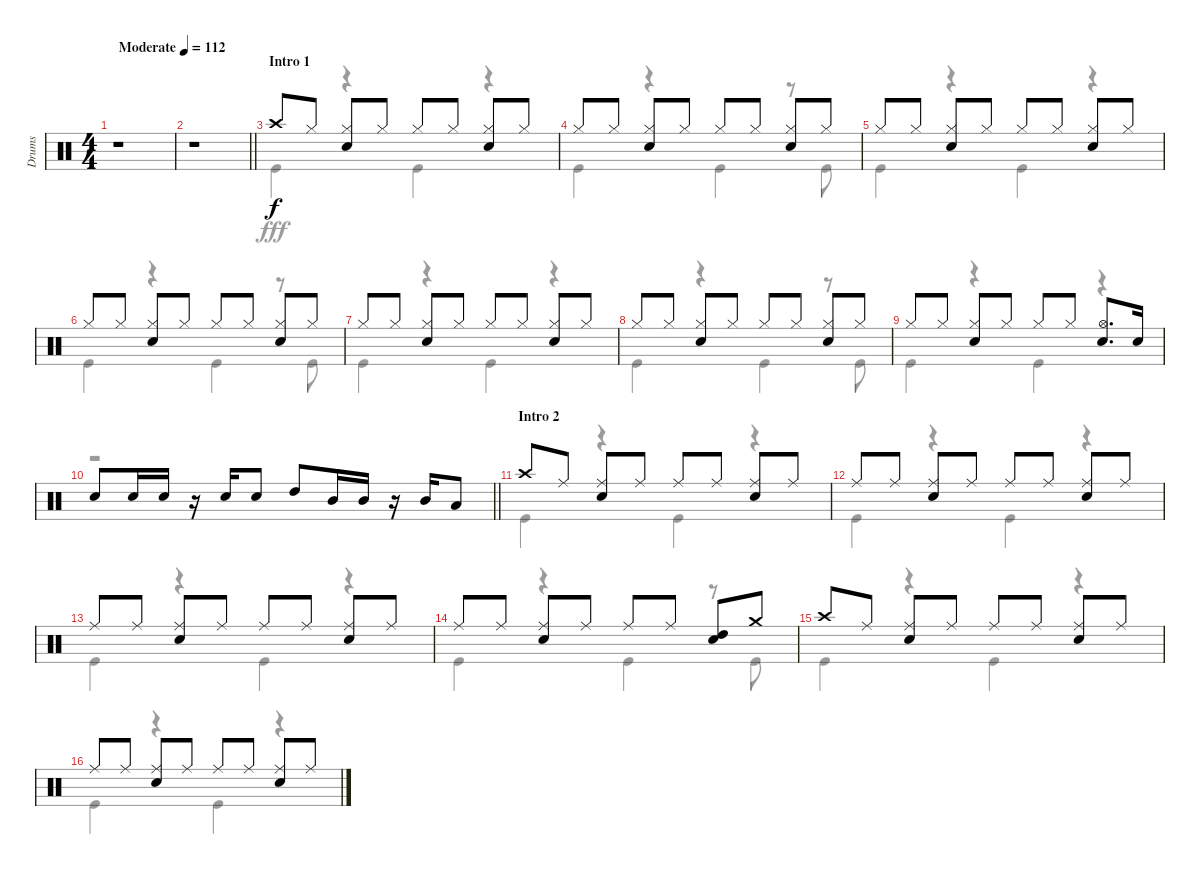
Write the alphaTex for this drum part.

\track ("Drums" "Drums") {instrument percussion}
\staff {score}
\articulation defaults
\voice
\ts (4 4)
\tempo (112 "Moderate")
\clef neutral
\ks c
r.1{dy f} |
\barLineRight lightlight
r.1 |
\section ("" "Intro 1")
"Crash high (hit)".8 "Hi-Hat (closed)".8 ("Hi-Hat (closed)" "Snare (hit) 2").8 "Hi-Hat (closed)".8 "Hi-Hat (closed)".8 "Hi-Hat (closed)".8 ("Hi-Hat (closed)" "Snare (hit) 2").8 "Hi-Hat (closed)".8 |
"Hi-Hat (closed)".8 "Hi-Hat (closed)".8 ("Hi-Hat (closed)" "Snare (hit) 2").8 "Hi-Hat (closed)".8 "Hi-Hat (closed)".8 "Hi-Hat (closed)".8 ("Hi-Hat (closed)" "Snare (hit) 2").8 "Hi-Hat (closed)".8 |
"Hi-Hat (closed)".8 "Hi-Hat (closed)".8 ("Hi-Hat (closed)" "Snare (hit) 2").8 "Hi-Hat (closed)".8 "Hi-Hat (closed)".8 "Hi-Hat (closed)".8 ("Hi-Hat (closed)" "Snare (hit) 2").8 "Hi-Hat (closed)".8 |
"Hi-Hat (closed)".8 "Hi-Hat (closed)".8 ("Hi-Hat (closed)" "Snare (hit) 2").8 "Hi-Hat (closed)".8 "Hi-Hat (closed)".8 "Hi-Hat (closed)".8 ("Hi-Hat (closed)" "Snare (hit) 2").8 "Hi-Hat (closed)".8 |
"Hi-Hat (closed)".8 "Hi-Hat (closed)".8 ("Hi-Hat (closed)" "Snare (hit) 2").8 "Hi-Hat (closed)".8 "Hi-Hat (closed)".8 "Hi-Hat (closed)".8 ("Hi-Hat (closed)" "Snare (hit) 2").8 "Hi-Hat (closed)".8 |
"Hi-Hat (closed)".8 "Hi-Hat (closed)".8 ("Hi-Hat (closed)" "Snare (hit) 2").8 "Hi-Hat (closed)".8 "Hi-Hat (closed)".8 "Hi-Hat (closed)".8 ("Hi-Hat (closed)" "Snare (hit) 2").8 "Hi-Hat (closed)".8 |
"Hi-Hat (closed)".8 "Hi-Hat (closed)".8 ("Hi-Hat (closed)" "Snare (hit) 2").8 "Hi-Hat (closed)".8 "Hi-Hat (closed)".8 "Hi-Hat (closed)".8 ("Hi-Hat (open)" "Snare (hit) 2").8{d} "Snare (hit) 2".16 |
\barLineRight lightlight "Snare (hit) 2".8 "Snare (hit) 2".16 "Snare (hit) 2".16
r.16 "Snare (hit) 2".16 "Snare (hit) 2".8 "High Tom (hit)".8 "Mid Tom (hit)".16 "Mid Tom (hit)".16 r.16 "Mid Tom (hit)".16 "Low Tom (hit)".8 |
\section ("" "Intro 2")
"Crash high (hit)".8 "Ride (middle)".8 ("Ride (middle)" "Snare (hit) 2").8 "Ride (middle)".8 "Ride (middle)".8 "Ride (middle)".8 ("Ride (middle)" "Snare (hit) 2").8 "Ride (middle)".8 |
"Ride (middle)".8 "Ride (middle)".8 ("Ride (middle)" "Snare (hit) 2").8 "Ride (middle)".8 "Ride (middle)".8 "Ride (middle)".8 ("Ride (middle)" "Snare (hit) 2").8 "Ride (middle)".8 |
"Ride (middle)".8 "Ride (middle)".8 ("Ride (middle)" "Snare (hit) 2").8 "Ride (middle)".8 "Ride (middle)".8 "Ride (middle)".8 ("Ride (middle)" "Snare (hit) 2").8 "Ride (middle)".8 |
"Ride (middle)".8 "Ride (middle)".8 ("Ride (middle)" "Snare (hit) 2").8 "Ride (middle)".8 "Ride (middle)".8 "Ride (middle)".8 ("High Tom (hit)" "Snare (hit) 2").8 "Crash medium (hit)".8 |
"Crash high (hit)".8 "Ride (middle)".8 ("Ride (middle)" "Snare (hit) 2").8 "Ride (middle)".8 "Ride (middle)".8 "Ride (middle)".8 ("Ride (middle)" "Snare (hit) 2").8 "Ride (middle)".8 |
"Ride (middle)".8 "Ride (middle)".8 ("Ride (middle)" "Snare (hit) 2").8 "Ride (middle)".8 "Ride (middle)".8 "Ride (middle)".8 ("Ride (middle)" "Snare (hit) 2").8 "Ride (middle)".8
\voice
\clef neutral
\ottava regular
\simile none
\ks c
r.1{dy fff} |
\barLineRight lightlight
r.1 |
"Kick (hit)".4 r.4 "Kick (hit)".4 r.4 |
"Kick (hit)".4 r.4 "Kick (hit)".4 r.8 "Kick (hit)".8 |
"Kick (hit)".4 r.4 "Kick (hit)".4 r.4 |
"Kick (hit)".4 r.4 "Kick (hit)".4 r.8 "Kick (hit)".8 |
"Kick (hit)".4 r.4 "Kick (hit)".4 r.4 |
"Kick (hit)".4 r.4 "Kick (hit)".4 r.8 "Kick (hit)".8 |
"Kick (hit)".4 r.4 "Kick (hit)".4 r.4 |
\barLineRight lightlight
r.1 |
"Kick (hit)".4 r.4 "Kick (hit)".4 r.4 |
"Kick (hit)".4 r.4 "Kick (hit)".4 r.4 |
"Kick (hit)".4 r.4 "Kick (hit)".4 r.4 |
"Kick (hit)".4 r.4 "Kick (hit)".4 r.8 "Kick (hit)".8 |
"Kick (hit)".4 r.4 "Kick (hit)".4 r.4 |
"Kick (hit)".4 r.4 "Kick (hit)".4 r.4
